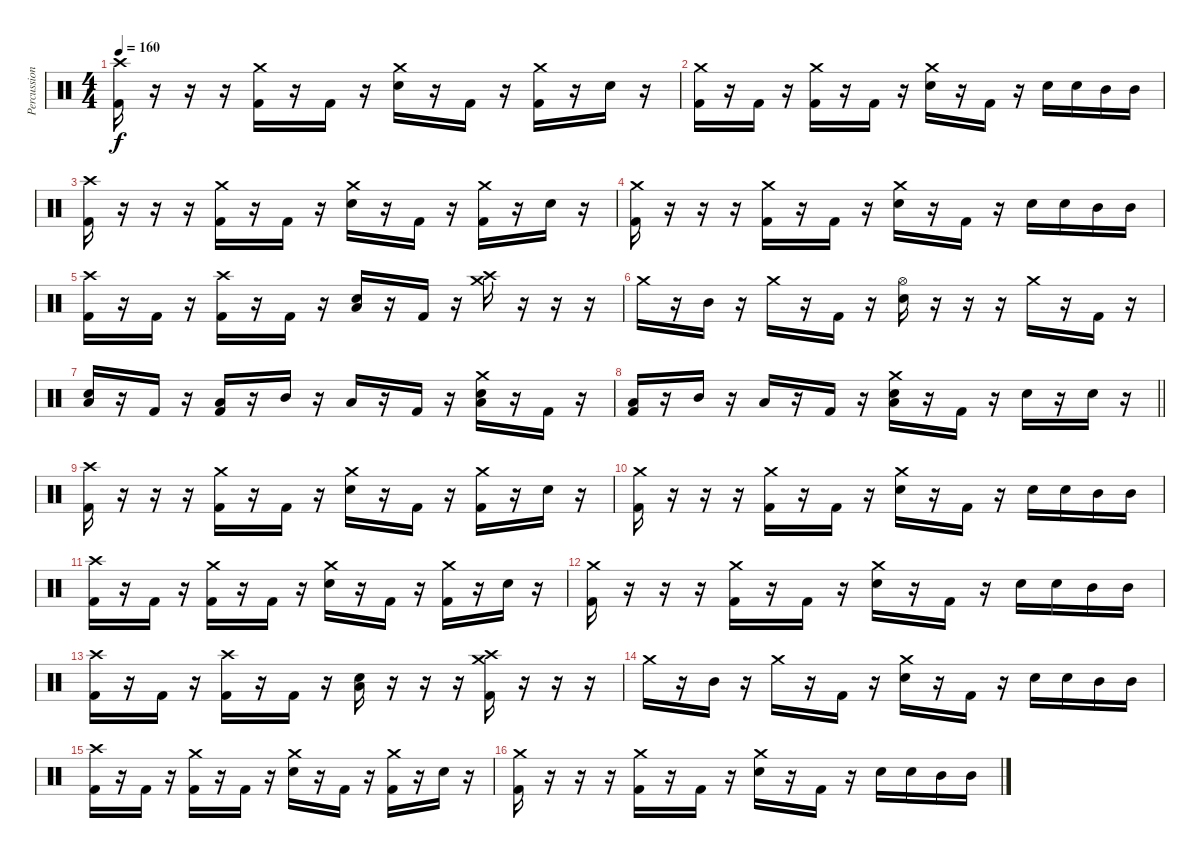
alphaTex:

\track ("Percussion" "Percussion") {instrument percussion}
\staff {score}
\articulation defaults
\ts (4 4)
\tempo 160
\clef neutral
\ks c
("Crash high (hit)" "Kick (hit) 2").16{dy f} r.16 r.16 r.16 ("Crash medium (hit)" "Kick (hit) 2").16 r.16 "Kick (hit) 2".16 r.16 ("Crash medium (hit)" "Snare (hit) 2").16 r.16 "Kick (hit) 2".16 r.16 ("Crash medium (hit)" "Kick (hit) 2").16 r.16 "Snare (hit) 2".16 r.16 |
("Crash medium (hit)" "Kick (hit) 2").16 r.16 "Kick (hit) 2".16 r.16 ("Crash medium (hit)" "Kick (hit) 2").16 r.16 "Kick (hit) 2".16 r.16 ("Crash medium (hit)" "Snare (hit) 2").16 r.16 "Kick (hit) 2".16 r.16 "Snare (hit) 2".16 "Snare (hit) 2".16 "Mid Tom (hit)".16 "Mid Tom (hit)".16 |
("Crash high (hit)" "Kick (hit) 2").16 r.16 r.16 r.16 ("Crash medium (hit)" "Kick (hit) 2").16 r.16 "Kick (hit) 2".16 r.16 ("Crash medium (hit)" "Snare (hit) 2").16 r.16 "Kick (hit) 2".16 r.16 ("Crash medium (hit)" "Kick (hit) 2").16 r.16 "Snare (hit) 2".16 r.16 |
("Crash medium (hit)" "Kick (hit) 2").16 r.16 r.16 r.16 ("Crash medium (hit)" "Kick (hit) 2").16 r.16 "Kick (hit) 2".16 r.16 ("Crash medium (hit)" "Snare (hit) 2").16 r.16 "Kick (hit) 2".16 r.16 "Snare (hit) 2".16 "Snare (hit) 2".16 "Mid Tom (hit)".16 "Mid Tom (hit)".16 |
("Crash high (hit)" "Kick (hit) 2").16 r.16 "Kick (hit) 2".16 r.16 ("Crash high (hit)" "Kick (hit) 2").16 r.16 "Kick (hit) 2".16 r.16 ("Low Floor Tom (hit)" "Snare (hit) 2").16 r.16 "Kick (hit) 2".16 r.16 ("Crash high (hit)" "Crash medium (hit)").16 r.16 r.16 r.16 |
"Crash medium (hit)".16 r.16 "Mid Tom (hit)".16 r.16 "Crash medium (hit)".16 r.16 "Kick (hit) 2".16 r.16 ("Hi-Hat (open)" "Snare (hit) 2").16 r.16 r.16 r.16 "Crash medium (hit)".16 r.16 "Kick (hit) 2".16 r.16 |
("Low Floor Tom (hit)" "Snare (hit) 2").16 r.16 "Kick (hit) 2".16 r.16 ("Low Floor Tom (hit)" "Kick (hit) 2").16 r.16 "Mid Tom (hit)".16 r.16 "Low Floor Tom (hit)".16 r.16 "Kick (hit) 2".16 r.16 ("Crash medium (hit)" "Low Floor Tom (hit)" "Snare (hit) 2").16 r.16 "Kick (hit) 2".16 r.16 |
\barLineRight lightlight
("Low Floor Tom (hit)" "Kick (hit) 2").16 r.16 "Mid Tom (hit)".16 r.16 "Low Floor Tom (hit)".16 r.16 "Kick (hit) 2".16 r.16 ("Crash medium (hit)" "Low Floor Tom (hit)" "Snare (hit) 2").16 r.16 "Kick (hit) 2".16 r.16 "Snare (hit) 2".16 r.16 "Snare (hit) 2".16 r.16 |
\section ("" "")
("Crash high (hit)" "Kick (hit) 2").16 r.16 r.16 r.16 ("Crash medium (hit)" "Kick (hit) 2").16 r.16 "Kick (hit) 2".16 r.16 ("Crash medium (hit)" "Snare (hit) 2").16 r.16 "Kick (hit) 2".16 r.16 ("Crash medium (hit)" "Kick (hit) 2").16 r.16 "Snare (hit) 2".16 r.16 |
("Crash medium (hit)" "Kick (hit) 2").16 r.16 r.16 r.16 ("Crash medium (hit)" "Kick (hit) 2").16 r.16 "Kick (hit) 2".16 r.16 ("Crash medium (hit)" "Snare (hit) 2").16 r.16 "Kick (hit) 2".16 r.16 "Snare (hit) 2".16 "Snare (hit) 2".16 "Mid Tom (hit)".16 "Mid Tom (hit)".16 |
("Crash high (hit)" "Kick (hit) 2").16 r.16 "Kick (hit) 2".16 r.16 ("Crash medium (hit)" "Kick (hit) 2").16 r.16 "Kick (hit) 2".16 r.16 ("Crash medium (hit)" "Snare (hit) 2").16 r.16 "Kick (hit) 2".16 r.16 ("Crash medium (hit)" "Kick (hit) 2").16 r.16 "Snare (hit) 2".16 r.16 |
("Crash medium (hit)" "Kick (hit) 2").16 r.16 r.16 r.16 ("Crash medium (hit)" "Kick (hit) 2").16 r.16 "Kick (hit) 2".16 r.16 ("Crash medium (hit)" "Snare (hit) 2").16 r.16 "Kick (hit) 2".16 r.16 "Snare (hit) 2".16 "Snare (hit) 2".16 "Mid Tom (hit)".16 "Mid Tom (hit)".16 |
("Crash high (hit)" "Kick (hit) 2").16 r.16 "Kick (hit) 2".16 r.16 ("Crash high (hit)" "Kick (hit) 2").16 r.16 "Kick (hit) 2".16 r.16 ("Low Floor Tom (hit)" "Snare (hit) 2").16 r.16 r.16 r.16 ("Crash high (hit)" "Crash medium (hit)" "Kick (hit) 2").16 r.16 r.16 r.16 |
"Crash medium (hit)".16 r.16 "Mid Tom (hit)".16 r.16 "Crash medium (hit)".16 r.16 "Kick (hit) 2".16 r.16 ("Crash medium (hit)" "Snare (hit) 2").16 r.16 "Kick (hit) 2".16 r.16 "Snare (hit) 2".16 "Snare (hit) 2".16 "Mid Tom (hit)".16 "Mid Tom (hit)".16 |
("Crash high (hit)" "Kick (hit) 2").16 r.16 "Kick (hit) 2".16 r.16 ("Crash medium (hit)" "Kick (hit) 2").16 r.16 "Kick (hit) 2".16 r.16 ("Crash medium (hit)" "Snare (hit) 2").16 r.16 "Kick (hit) 2".16 r.16 ("Crash medium (hit)" "Kick (hit) 2").16 r.16 "Snare (hit) 2".16 r.16 |
("Crash medium (hit)" "Kick (hit) 2").16 r.16 r.16 r.16 ("Crash medium (hit)" "Kick (hit) 2").16 r.16 "Kick (hit) 2".16 r.16 ("Crash medium (hit)" "Snare (hit) 2").16 r.16 "Kick (hit) 2".16 r.16 "Snare (hit) 2".16 "Snare (hit) 2".16 "Mid Tom (hit)".16 "Mid Tom (hit)".16
